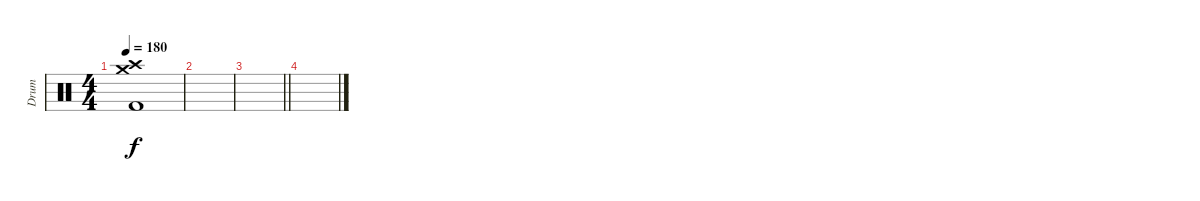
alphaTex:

\track ("Drum" "Drum") {instrument percussion}
\staff {score}
\articulation defaults
\ts (4 4)
\tempo 180
\clef neutral
\ks c
("Crash high (hit)" "Crash medium (hit)" "Kick (hit) 2").1{dy f} |
|
\barLineRight lightlight
|
\section ("" "")
